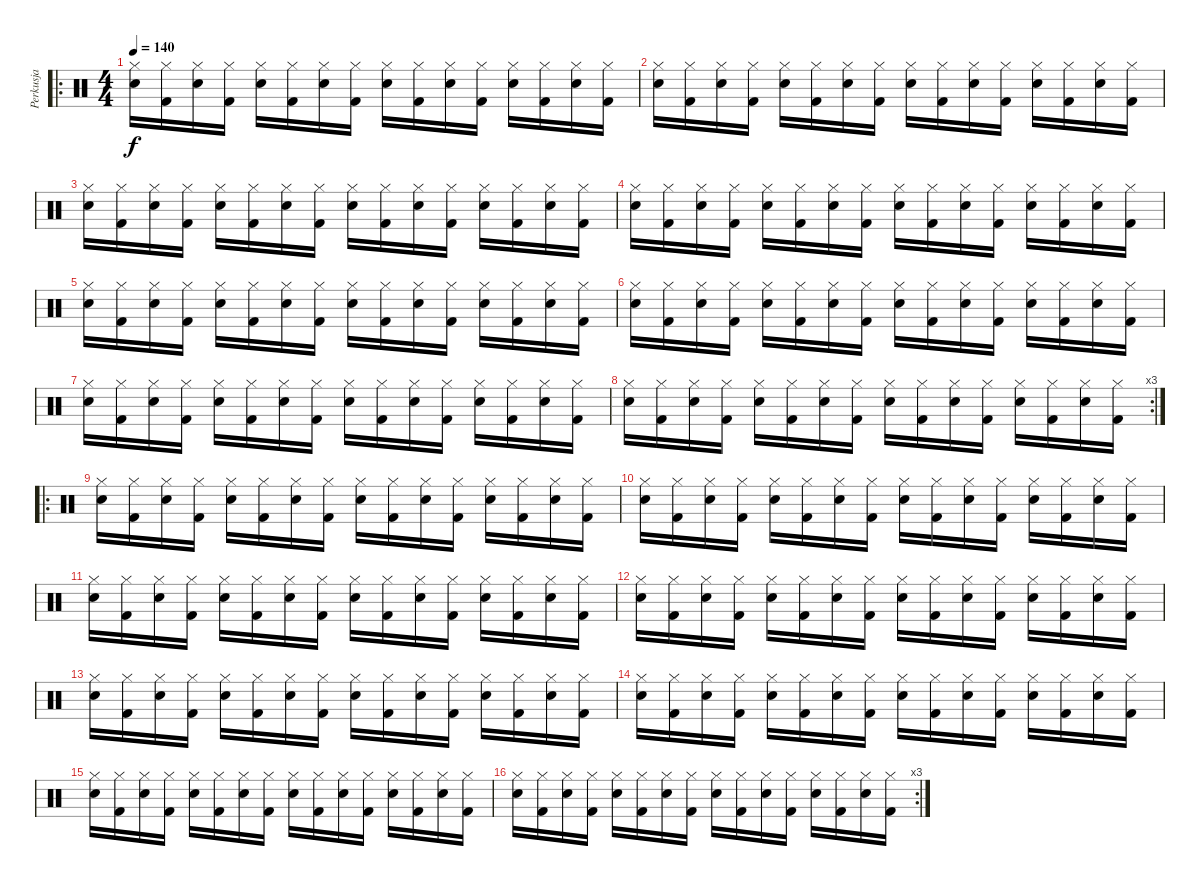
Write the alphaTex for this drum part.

\track ("Perkusja" "Perkusja") {instrument percussion}
\staff {score}
\articulation defaults
\ro
\ts (4 4)
\tempo 140
\clef neutral
\ks c
("Hi-Hat (closed)" "Snare (hit) 2").16{dy f} ("Hi-Hat (closed)" "Kick (hit) 2").16 ("Hi-Hat (closed)" "Snare (hit) 2").16 ("Hi-Hat (closed)" "Kick (hit) 2").16 ("Hi-Hat (closed)" "Snare (hit) 2").16 ("Hi-Hat (closed)" "Kick (hit) 2").16 ("Hi-Hat (closed)" "Snare (hit) 2").16 ("Hi-Hat (closed)" "Kick (hit) 2").16 ("Hi-Hat (closed)" "Snare (hit) 2").16 ("Hi-Hat (closed)" "Kick (hit) 2").16 ("Hi-Hat (closed)" "Snare (hit) 2").16 ("Hi-Hat (closed)" "Kick (hit) 2").16 ("Hi-Hat (closed)" "Snare (hit) 2").16 ("Hi-Hat (closed)" "Kick (hit) 2").16 ("Hi-Hat (closed)" "Snare (hit) 2").16 ("Hi-Hat (closed)" "Kick (hit) 2").16 |
("Hi-Hat (closed)" "Snare (hit) 2").16 ("Hi-Hat (closed)" "Kick (hit) 2").16 ("Hi-Hat (closed)" "Snare (hit) 2").16 ("Hi-Hat (closed)" "Kick (hit) 2").16 ("Hi-Hat (closed)" "Snare (hit) 2").16 ("Hi-Hat (closed)" "Kick (hit) 2").16 ("Hi-Hat (closed)" "Snare (hit) 2").16 ("Hi-Hat (closed)" "Kick (hit) 2").16 ("Hi-Hat (closed)" "Snare (hit) 2").16 ("Hi-Hat (closed)" "Kick (hit) 2").16 ("Hi-Hat (closed)" "Snare (hit) 2").16 ("Hi-Hat (closed)" "Kick (hit) 2").16 ("Hi-Hat (closed)" "Snare (hit) 2").16 ("Hi-Hat (closed)" "Kick (hit) 2").16 ("Hi-Hat (closed)" "Snare (hit) 2").16 ("Hi-Hat (closed)" "Kick (hit) 2").16 |
("Hi-Hat (closed)" "Snare (hit) 2").16 ("Hi-Hat (closed)" "Kick (hit) 2").16 ("Hi-Hat (closed)" "Snare (hit) 2").16 ("Hi-Hat (closed)" "Kick (hit) 2").16 ("Hi-Hat (closed)" "Snare (hit) 2").16 ("Hi-Hat (closed)" "Kick (hit) 2").16 ("Hi-Hat (closed)" "Snare (hit) 2").16 ("Hi-Hat (closed)" "Kick (hit) 2").16 ("Hi-Hat (closed)" "Snare (hit) 2").16 ("Hi-Hat (closed)" "Kick (hit) 2").16 ("Hi-Hat (closed)" "Snare (hit) 2").16 ("Hi-Hat (closed)" "Kick (hit) 2").16 ("Hi-Hat (closed)" "Snare (hit) 2").16 ("Hi-Hat (closed)" "Kick (hit) 2").16 ("Hi-Hat (closed)" "Snare (hit) 2").16 ("Hi-Hat (closed)" "Kick (hit) 2").16 |
("Hi-Hat (closed)" "Snare (hit) 2").16 ("Hi-Hat (closed)" "Kick (hit) 2").16 ("Hi-Hat (closed)" "Snare (hit) 2").16 ("Hi-Hat (closed)" "Kick (hit) 2").16 ("Hi-Hat (closed)" "Snare (hit) 2").16 ("Hi-Hat (closed)" "Kick (hit) 2").16 ("Hi-Hat (closed)" "Snare (hit) 2").16 ("Hi-Hat (closed)" "Kick (hit) 2").16 ("Hi-Hat (closed)" "Snare (hit) 2").16 ("Hi-Hat (closed)" "Kick (hit) 2").16 ("Hi-Hat (closed)" "Snare (hit) 2").16 ("Hi-Hat (closed)" "Kick (hit) 2").16 ("Hi-Hat (closed)" "Snare (hit) 2").16 ("Hi-Hat (closed)" "Kick (hit) 2").16 ("Hi-Hat (closed)" "Snare (hit) 2").16 ("Hi-Hat (closed)" "Kick (hit) 2").16 |
("Hi-Hat (closed)" "Snare (hit) 2").16 ("Hi-Hat (closed)" "Kick (hit) 2").16 ("Hi-Hat (closed)" "Snare (hit) 2").16 ("Hi-Hat (closed)" "Kick (hit) 2").16 ("Hi-Hat (closed)" "Snare (hit) 2").16 ("Hi-Hat (closed)" "Kick (hit) 2").16 ("Hi-Hat (closed)" "Snare (hit) 2").16 ("Hi-Hat (closed)" "Kick (hit) 2").16 ("Hi-Hat (closed)" "Snare (hit) 2").16 ("Hi-Hat (closed)" "Kick (hit) 2").16 ("Hi-Hat (closed)" "Snare (hit) 2").16 ("Hi-Hat (closed)" "Kick (hit) 2").16 ("Hi-Hat (closed)" "Snare (hit) 2").16 ("Hi-Hat (closed)" "Kick (hit) 2").16 ("Hi-Hat (closed)" "Snare (hit) 2").16 ("Hi-Hat (closed)" "Kick (hit) 2").16 |
("Hi-Hat (closed)" "Snare (hit) 2").16 ("Hi-Hat (closed)" "Kick (hit) 2").16 ("Hi-Hat (closed)" "Snare (hit) 2").16 ("Hi-Hat (closed)" "Kick (hit) 2").16 ("Hi-Hat (closed)" "Snare (hit) 2").16 ("Hi-Hat (closed)" "Kick (hit) 2").16 ("Hi-Hat (closed)" "Snare (hit) 2").16 ("Hi-Hat (closed)" "Kick (hit) 2").16 ("Hi-Hat (closed)" "Snare (hit) 2").16 ("Hi-Hat (closed)" "Kick (hit) 2").16 ("Hi-Hat (closed)" "Snare (hit) 2").16 ("Hi-Hat (closed)" "Kick (hit) 2").16 ("Hi-Hat (closed)" "Snare (hit) 2").16 ("Hi-Hat (closed)" "Kick (hit) 2").16 ("Hi-Hat (closed)" "Snare (hit) 2").16 ("Hi-Hat (closed)" "Kick (hit) 2").16 |
("Hi-Hat (closed)" "Snare (hit) 2").16 ("Hi-Hat (closed)" "Kick (hit) 2").16 ("Hi-Hat (closed)" "Snare (hit) 2").16 ("Hi-Hat (closed)" "Kick (hit) 2").16 ("Hi-Hat (closed)" "Snare (hit) 2").16 ("Hi-Hat (closed)" "Kick (hit) 2").16 ("Hi-Hat (closed)" "Snare (hit) 2").16 ("Hi-Hat (closed)" "Kick (hit) 2").16 ("Hi-Hat (closed)" "Snare (hit) 2").16 ("Hi-Hat (closed)" "Kick (hit) 2").16 ("Hi-Hat (closed)" "Snare (hit) 2").16 ("Hi-Hat (closed)" "Kick (hit) 2").16 ("Hi-Hat (closed)" "Snare (hit) 2").16 ("Hi-Hat (closed)" "Kick (hit) 2").16 ("Hi-Hat (closed)" "Snare (hit) 2").16 ("Hi-Hat (closed)" "Kick (hit) 2").16 |
\rc 3
("Hi-Hat (closed)" "Snare (hit) 2").16 ("Hi-Hat (closed)" "Kick (hit) 2").16 ("Hi-Hat (closed)" "Snare (hit) 2").16 ("Hi-Hat (closed)" "Kick (hit) 2").16 ("Hi-Hat (closed)" "Snare (hit) 2").16 ("Hi-Hat (closed)" "Kick (hit) 2").16 ("Hi-Hat (closed)" "Snare (hit) 2").16 ("Hi-Hat (closed)" "Kick (hit) 2").16 ("Hi-Hat (closed)" "Snare (hit) 2").16 ("Hi-Hat (closed)" "Kick (hit) 2").16 ("Hi-Hat (closed)" "Snare (hit) 2").16 ("Hi-Hat (closed)" "Kick (hit) 2").16 ("Hi-Hat (closed)" "Snare (hit) 2").16 ("Hi-Hat (closed)" "Kick (hit) 2").16 ("Hi-Hat (closed)" "Snare (hit) 2").16 ("Hi-Hat (closed)" "Kick (hit) 2").16 |
\ro
("Hi-Hat (closed)" "Snare (hit) 2").16 ("Hi-Hat (closed)" "Kick (hit) 2").16 ("Hi-Hat (closed)" "Snare (hit) 2").16 ("Hi-Hat (closed)" "Kick (hit) 2").16 ("Hi-Hat (closed)" "Snare (hit) 2").16 ("Hi-Hat (closed)" "Kick (hit) 2").16 ("Hi-Hat (closed)" "Snare (hit) 2").16 ("Hi-Hat (closed)" "Kick (hit) 2").16 ("Hi-Hat (closed)" "Snare (hit) 2").16 ("Hi-Hat (closed)" "Kick (hit) 2").16 ("Hi-Hat (closed)" "Snare (hit) 2").16 ("Hi-Hat (closed)" "Kick (hit) 2").16 ("Hi-Hat (closed)" "Snare (hit) 2").16 ("Hi-Hat (closed)" "Kick (hit) 2").16 ("Hi-Hat (closed)" "Snare (hit) 2").16 ("Hi-Hat (closed)" "Kick (hit) 2").16 |
("Hi-Hat (closed)" "Snare (hit) 2").16 ("Hi-Hat (closed)" "Kick (hit) 2").16 ("Hi-Hat (closed)" "Snare (hit) 2").16 ("Hi-Hat (closed)" "Kick (hit) 2").16 ("Hi-Hat (closed)" "Snare (hit) 2").16 ("Hi-Hat (closed)" "Kick (hit) 2").16 ("Hi-Hat (closed)" "Snare (hit) 2").16 ("Hi-Hat (closed)" "Kick (hit) 2").16 ("Hi-Hat (closed)" "Snare (hit) 2").16 ("Hi-Hat (closed)" "Kick (hit) 2").16 ("Hi-Hat (closed)" "Snare (hit) 2").16 ("Hi-Hat (closed)" "Kick (hit) 2").16 ("Hi-Hat (closed)" "Snare (hit) 2").16 ("Hi-Hat (closed)" "Kick (hit) 2").16 ("Hi-Hat (closed)" "Snare (hit) 2").16 ("Hi-Hat (closed)" "Kick (hit) 2").16 |
("Hi-Hat (closed)" "Snare (hit) 2").16 ("Hi-Hat (closed)" "Kick (hit) 2").16 ("Hi-Hat (closed)" "Snare (hit) 2").16 ("Hi-Hat (closed)" "Kick (hit) 2").16 ("Hi-Hat (closed)" "Snare (hit) 2").16 ("Hi-Hat (closed)" "Kick (hit) 2").16 ("Hi-Hat (closed)" "Snare (hit) 2").16 ("Hi-Hat (closed)" "Kick (hit) 2").16 ("Hi-Hat (closed)" "Snare (hit) 2").16 ("Hi-Hat (closed)" "Kick (hit) 2").16 ("Hi-Hat (closed)" "Snare (hit) 2").16 ("Hi-Hat (closed)" "Kick (hit) 2").16 ("Hi-Hat (closed)" "Snare (hit) 2").16 ("Hi-Hat (closed)" "Kick (hit) 2").16 ("Hi-Hat (closed)" "Snare (hit) 2").16 ("Hi-Hat (closed)" "Kick (hit) 2").16 |
("Hi-Hat (closed)" "Snare (hit) 2").16 ("Hi-Hat (closed)" "Kick (hit) 2").16 ("Hi-Hat (closed)" "Snare (hit) 2").16 ("Hi-Hat (closed)" "Kick (hit) 2").16 ("Hi-Hat (closed)" "Snare (hit) 2").16 ("Hi-Hat (closed)" "Kick (hit) 2").16 ("Hi-Hat (closed)" "Snare (hit) 2").16 ("Hi-Hat (closed)" "Kick (hit) 2").16 ("Hi-Hat (closed)" "Snare (hit) 2").16 ("Hi-Hat (closed)" "Kick (hit) 2").16 ("Hi-Hat (closed)" "Snare (hit) 2").16 ("Hi-Hat (closed)" "Kick (hit) 2").16 ("Hi-Hat (closed)" "Snare (hit) 2").16 ("Hi-Hat (closed)" "Kick (hit) 2").16 ("Hi-Hat (closed)" "Snare (hit) 2").16 ("Hi-Hat (closed)" "Kick (hit) 2").16 |
("Hi-Hat (closed)" "Snare (hit) 2").16 ("Hi-Hat (closed)" "Kick (hit) 2").16 ("Hi-Hat (closed)" "Snare (hit) 2").16 ("Hi-Hat (closed)" "Kick (hit) 2").16 ("Hi-Hat (closed)" "Snare (hit) 2").16 ("Hi-Hat (closed)" "Kick (hit) 2").16 ("Hi-Hat (closed)" "Snare (hit) 2").16 ("Hi-Hat (closed)" "Kick (hit) 2").16 ("Hi-Hat (closed)" "Snare (hit) 2").16 ("Hi-Hat (closed)" "Kick (hit) 2").16 ("Hi-Hat (closed)" "Snare (hit) 2").16 ("Hi-Hat (closed)" "Kick (hit) 2").16 ("Hi-Hat (closed)" "Snare (hit) 2").16 ("Hi-Hat (closed)" "Kick (hit) 2").16 ("Hi-Hat (closed)" "Snare (hit) 2").16 ("Hi-Hat (closed)" "Kick (hit) 2").16 |
("Hi-Hat (closed)" "Snare (hit) 2").16 ("Hi-Hat (closed)" "Kick (hit) 2").16 ("Hi-Hat (closed)" "Snare (hit) 2").16 ("Hi-Hat (closed)" "Kick (hit) 2").16 ("Hi-Hat (closed)" "Snare (hit) 2").16 ("Hi-Hat (closed)" "Kick (hit) 2").16 ("Hi-Hat (closed)" "Snare (hit) 2").16 ("Hi-Hat (closed)" "Kick (hit) 2").16 ("Hi-Hat (closed)" "Snare (hit) 2").16 ("Hi-Hat (closed)" "Kick (hit) 2").16 ("Hi-Hat (closed)" "Snare (hit) 2").16 ("Hi-Hat (closed)" "Kick (hit) 2").16 ("Hi-Hat (closed)" "Snare (hit) 2").16 ("Hi-Hat (closed)" "Kick (hit) 2").16 ("Hi-Hat (closed)" "Snare (hit) 2").16 ("Hi-Hat (closed)" "Kick (hit) 2").16 |
("Hi-Hat (closed)" "Snare (hit) 2").16 ("Hi-Hat (closed)" "Kick (hit) 2").16 ("Hi-Hat (closed)" "Snare (hit) 2").16 ("Hi-Hat (closed)" "Kick (hit) 2").16 ("Hi-Hat (closed)" "Snare (hit) 2").16 ("Hi-Hat (closed)" "Kick (hit) 2").16 ("Hi-Hat (closed)" "Snare (hit) 2").16 ("Hi-Hat (closed)" "Kick (hit) 2").16 ("Hi-Hat (closed)" "Snare (hit) 2").16 ("Hi-Hat (closed)" "Kick (hit) 2").16 ("Hi-Hat (closed)" "Snare (hit) 2").16 ("Hi-Hat (closed)" "Kick (hit) 2").16 ("Hi-Hat (closed)" "Snare (hit) 2").16 ("Hi-Hat (closed)" "Kick (hit) 2").16 ("Hi-Hat (closed)" "Snare (hit) 2").16 ("Hi-Hat (closed)" "Kick (hit) 2").16 |
\rc 3
("Hi-Hat (closed)" "Snare (hit) 2").16 ("Hi-Hat (closed)" "Kick (hit) 2").16 ("Hi-Hat (closed)" "Snare (hit) 2").16 ("Hi-Hat (closed)" "Kick (hit) 2").16 ("Hi-Hat (closed)" "Snare (hit) 2").16 ("Hi-Hat (closed)" "Kick (hit) 2").16 ("Hi-Hat (closed)" "Snare (hit) 2").16 ("Hi-Hat (closed)" "Kick (hit) 2").16 ("Hi-Hat (closed)" "Snare (hit) 2").16 ("Hi-Hat (closed)" "Kick (hit) 2").16 ("Hi-Hat (closed)" "Snare (hit) 2").16 ("Hi-Hat (closed)" "Kick (hit) 2").16 ("Hi-Hat (closed)" "Snare (hit) 2").16 ("Hi-Hat (closed)" "Kick (hit) 2").16 ("Hi-Hat (closed)" "Snare (hit) 2").16 ("Hi-Hat (closed)" "Kick (hit) 2").16
